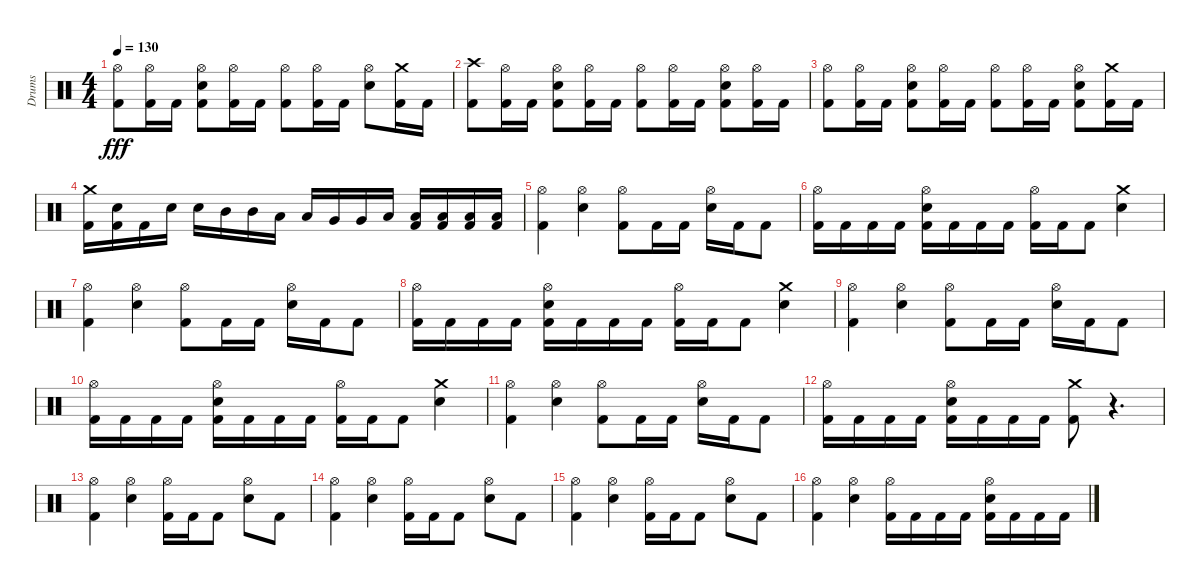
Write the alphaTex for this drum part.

\track ("Drums" "Drums") {instrument percussion}
\staff {score}
\articulation defaults
\ts (4 4)
\tempo 130
\clef neutral
\ks c
("Hi-Hat (open)" "Kick (hit) 2").8{dy fff} ("Hi-Hat (open)" "Kick (hit) 2").16 "Kick (hit) 2".16 ("Hi-Hat (open)" "Kick (hit) 2" "Electric Snare (hit)").8 ("Hi-Hat (open)" "Kick (hit) 2").16 "Kick (hit) 2".16 ("Kick (hit) 2" "Hi-Hat (open)").8 ("Kick (hit) 2" "Hi-Hat (open)").16 "Kick (hit) 2".16 ("Electric Snare (hit)" "Hi-Hat (open)").8 ("Kick (hit) 2" "Crash medium (hit)").16 "Kick (hit) 2".16 |
("Kick (hit) 2" "Crash high (hit)").8 ("Hi-Hat (open)" "Kick (hit) 2").16 "Kick (hit) 2".16 ("Kick (hit) 2" "Electric Snare (hit)" "Hi-Hat (open)").8 ("Hi-Hat (open)" "Kick (hit) 2").16 "Kick (hit) 2".16 ("Kick (hit) 2" "Hi-Hat (open)").8 ("Kick (hit) 2" "Hi-Hat (open)").16 "Kick (hit) 2".16 ("Hi-Hat (open)" "Electric Snare (hit)" "Kick (hit) 2").8 ("Kick (hit) 2" "Hi-Hat (open)").16 "Kick (hit) 2".16 |
("Kick (hit) 2" "Hi-Hat (open)").8 ("Hi-Hat (open)" "Kick (hit) 2").16 "Kick (hit) 2".16 ("Kick (hit) 2" "Electric Snare (hit)" "Hi-Hat (open)").8 ("Hi-Hat (open)" "Kick (hit) 2").16 "Kick (hit) 2".16 ("Hi-Hat (open)" "Kick (hit) 2").8 ("Kick (hit) 2" "Hi-Hat (open)").16 "Kick (hit) 2".16 ("Kick (hit) 2" "Electric Snare (hit)" "Hi-Hat (open)").8 ("Kick (hit) 2" "Crash medium (hit)").16 "Kick (hit) 2".16 |
("Kick (hit) 2" "Crash medium (hit)").16 ("Electric Snare (hit)" "Kick (hit) 2").16 "Kick (hit) 2".16 "Electric Snare (hit)".16 "Electric Snare (hit)".16 "Mid Tom (hit)".16 "Mid Tom (hit)".16 "Low Tom (hit)".16 "Low Tom (hit)".16 "Very Low Tom (hit)".16 "Very Low Tom (hit)".16 "Low Floor Tom (hit)".16 ("Kick (hit) 2" "Low Floor Tom (hit)").16 ("Kick (hit) 2" "Low Floor Tom (hit)").16 ("Kick (hit) 2" "Low Floor Tom (hit)").16 ("Kick (hit) 2" "Low Floor Tom (hit)").16 |
("Hi-Hat (open)" "Kick (hit) 2").4 ("Hi-Hat (open)" "Electric Snare (hit)").4 ("Hi-Hat (open)" "Kick (hit) 2").8 "Kick (hit) 2".16 "Kick (hit) 2".16 ("Hi-Hat (open)" "Electric Snare (hit)").16 "Kick (hit) 2".16 "Kick (hit) 2".8 |
("Hi-Hat (open)" "Kick (hit) 2").16 "Kick (hit) 2".16 "Kick (hit) 2".16 "Kick (hit) 2".16 ("Electric Snare (hit)" "Hi-Hat (open)" "Kick (hit) 2").16 "Kick (hit) 2".16 "Kick (hit) 2".16 "Kick (hit) 2".16 ("Hi-Hat (open)" "Kick (hit) 2").16 "Kick (hit) 2".16 "Kick (hit) 2".8 ("Crash medium (hit)" "Electric Snare (hit)").4 |
("Hi-Hat (open)" "Kick (hit) 2").4 ("Hi-Hat (open)" "Electric Snare (hit)").4 ("Hi-Hat (open)" "Kick (hit) 2").8 "Kick (hit) 2".16 "Kick (hit) 2".16 ("Hi-Hat (open)" "Electric Snare (hit)").16 "Kick (hit) 2".16 "Kick (hit) 2".8 |
("Hi-Hat (open)" "Kick (hit) 2").16 "Kick (hit) 2".16 "Kick (hit) 2".16 "Kick (hit) 2".16 ("Electric Snare (hit)" "Hi-Hat (open)" "Kick (hit) 2").16 "Kick (hit) 2".16 "Kick (hit) 2".16 "Kick (hit) 2".16 ("Hi-Hat (open)" "Kick (hit) 2").16 "Kick (hit) 2".16 "Kick (hit) 2".8 ("Crash medium (hit)" "Electric Snare (hit)").4 |
("Hi-Hat (open)" "Kick (hit) 2").4 ("Hi-Hat (open)" "Electric Snare (hit)").4 ("Hi-Hat (open)" "Kick (hit) 2").8 "Kick (hit) 2".16 "Kick (hit) 2".16 ("Hi-Hat (open)" "Electric Snare (hit)").16 "Kick (hit) 2".16 "Kick (hit) 2".8 |
("Hi-Hat (open)" "Kick (hit) 2").16 "Kick (hit) 2".16 "Kick (hit) 2".16 "Kick (hit) 2".16 ("Electric Snare (hit)" "Hi-Hat (open)" "Kick (hit) 2").16 "Kick (hit) 2".16 "Kick (hit) 2".16 "Kick (hit) 2".16 ("Hi-Hat (open)" "Kick (hit) 2").16 "Kick (hit) 2".16 "Kick (hit) 2".8 ("Crash medium (hit)" "Electric Snare (hit)").4 |
("Hi-Hat (open)" "Kick (hit) 2").4 ("Hi-Hat (open)" "Electric Snare (hit)").4 ("Hi-Hat (open)" "Kick (hit) 2").8 "Kick (hit) 2".16 "Kick (hit) 2".16 ("Hi-Hat (open)" "Electric Snare (hit)").16 "Kick (hit) 2".16 "Kick (hit) 2".8 |
("Hi-Hat (open)" "Kick (hit) 2").16 "Kick (hit) 2".16 "Kick (hit) 2".16 "Kick (hit) 2".16 ("Electric Snare (hit)" "Hi-Hat (open)" "Kick (hit) 2").16 "Kick (hit) 2".16 "Kick (hit) 2".16 "Kick (hit) 2".16 ("Crash medium (hit)" "Kick (hit) 2").8 r.4{d} |
("Hi-Hat (open)" "Kick (hit) 2").4 ("Hi-Hat (open)" "Snare (hit) 2").4 ("Hi-Hat (open)" "Kick (hit) 2").16 "Kick (hit) 2".16 "Kick (hit) 2".8 ("Hi-Hat (open)" "Electric Snare (hit)").8 "Kick (hit) 2".8 |
("Hi-Hat (open)" "Kick (hit) 2").4 ("Hi-Hat (open)" "Snare (hit) 2").4 ("Hi-Hat (open)" "Kick (hit) 2").16 "Kick (hit) 2".16 "Kick (hit) 2".8 ("Hi-Hat (open)" "Electric Snare (hit)").8 "Kick (hit) 2".8 |
("Hi-Hat (open)" "Kick (hit) 2").4 ("Hi-Hat (open)" "Snare (hit) 2").4 ("Hi-Hat (open)" "Kick (hit) 2").16 "Kick (hit) 2".16 "Kick (hit) 2".8 ("Hi-Hat (open)" "Electric Snare (hit)").8 "Kick (hit) 2".8 |
("Hi-Hat (open)" "Kick (hit) 2").4 ("Hi-Hat (open)" "Snare (hit) 2").4 ("Hi-Hat (open)" "Kick (hit) 2").16 "Kick (hit) 2".16 "Kick (hit) 2".16 "Kick (hit) 2".16 ("Kick (hit) 2" "Hi-Hat (open)" "Electric Snare (hit)").16 "Kick (hit) 2".16 "Kick (hit) 2".16 "Kick (hit) 2".16
